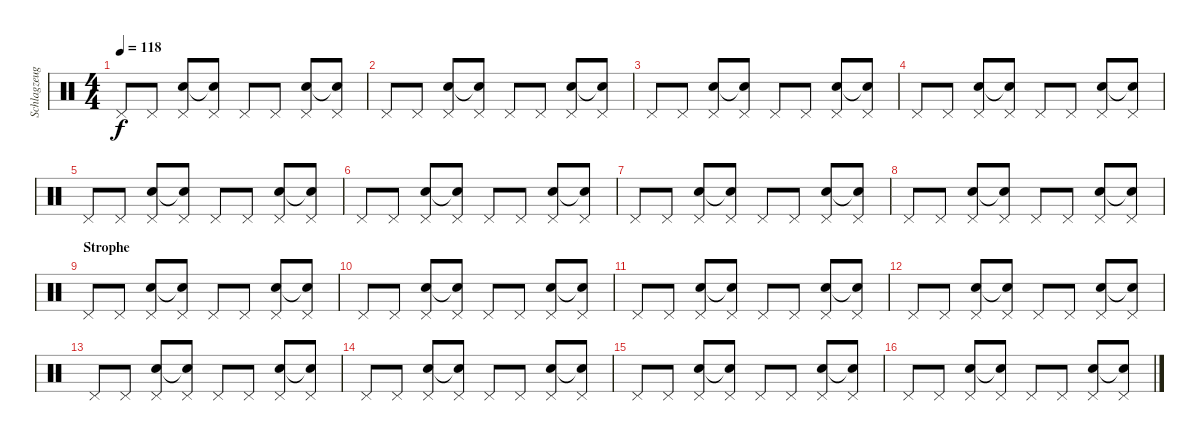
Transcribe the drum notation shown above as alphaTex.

\track ("Schlagzeug" "Schlagzeug") {instrument percussion}
\staff {score}
\articulation defaults
\ts (4 4)
\tempo 118
\clef neutral
\ks c "Pedal Hi-Hat (hit)".8{dy f} "Pedal Hi-Hat (hit)".8
("Pedal Hi-Hat (hit)" "Snare (hit) 2").8 ("Pedal Hi-Hat (hit)" "Snare (hit) 2"{t}).8 "Pedal Hi-Hat (hit)".8 "Pedal Hi-Hat (hit)".8 ("Pedal Hi-Hat (hit)" "Snare (hit) 2").8 ("Pedal Hi-Hat (hit)" "Snare (hit)"{t}).8 |
"Pedal Hi-Hat (hit)".8 "Pedal Hi-Hat (hit)".8 ("Pedal Hi-Hat (hit)" "Snare (hit) 2").8 ("Pedal Hi-Hat (hit)" "Snare (hit) 2"{t}).8 "Pedal Hi-Hat (hit)".8 "Pedal Hi-Hat (hit)".8 ("Pedal Hi-Hat (hit)" "Snare (hit) 2").8 ("Pedal Hi-Hat (hit)" "Snare (hit)"{t}).8 |
"Pedal Hi-Hat (hit)".8 "Pedal Hi-Hat (hit)".8 ("Pedal Hi-Hat (hit)" "Snare (hit) 2").8 ("Pedal Hi-Hat (hit)" "Snare (hit) 2"{t}).8 "Pedal Hi-Hat (hit)".8 "Pedal Hi-Hat (hit)".8 ("Pedal Hi-Hat (hit)" "Snare (hit) 2").8 ("Pedal Hi-Hat (hit)" "Snare (hit)"{t}).8 |
"Pedal Hi-Hat (hit)".8 "Pedal Hi-Hat (hit)".8 ("Pedal Hi-Hat (hit)" "Snare (hit) 2").8 ("Pedal Hi-Hat (hit)" "Snare (hit) 2"{t}).8 "Pedal Hi-Hat (hit)".8 "Pedal Hi-Hat (hit)".8 ("Pedal Hi-Hat (hit)" "Snare (hit) 2").8 ("Pedal Hi-Hat (hit)" "Snare (hit)"{t}).8 |
"Pedal Hi-Hat (hit)".8 "Pedal Hi-Hat (hit)".8 ("Pedal Hi-Hat (hit)" "Snare (hit) 2").8 ("Pedal Hi-Hat (hit)" "Snare (hit) 2"{t}).8 "Pedal Hi-Hat (hit)".8 "Pedal Hi-Hat (hit)".8 ("Pedal Hi-Hat (hit)" "Snare (hit) 2").8 ("Pedal Hi-Hat (hit)" "Snare (hit)"{t}).8 |
"Pedal Hi-Hat (hit)".8 "Pedal Hi-Hat (hit)".8 ("Pedal Hi-Hat (hit)" "Snare (hit) 2").8 ("Pedal Hi-Hat (hit)" "Snare (hit) 2"{t}).8 "Pedal Hi-Hat (hit)".8 "Pedal Hi-Hat (hit)".8 ("Pedal Hi-Hat (hit)" "Snare (hit) 2").8 ("Pedal Hi-Hat (hit)" "Snare (hit)"{t}).8 |
"Pedal Hi-Hat (hit)".8 "Pedal Hi-Hat (hit)".8 ("Pedal Hi-Hat (hit)" "Snare (hit) 2").8 ("Pedal Hi-Hat (hit)" "Snare (hit) 2"{t}).8 "Pedal Hi-Hat (hit)".8 "Pedal Hi-Hat (hit)".8 ("Pedal Hi-Hat (hit)" "Snare (hit) 2").8 ("Pedal Hi-Hat (hit)" "Snare (hit)"{t}).8 |
"Pedal Hi-Hat (hit)".8 "Pedal Hi-Hat (hit)".8 ("Pedal Hi-Hat (hit)" "Snare (hit) 2").8 ("Pedal Hi-Hat (hit)" "Snare (hit) 2"{t}).8 "Pedal Hi-Hat (hit)".8 "Pedal Hi-Hat (hit)".8 ("Pedal Hi-Hat (hit)" "Snare (hit) 2").8 ("Pedal Hi-Hat (hit)" "Snare (hit)"{t}).8 |
\section ("" "Strophe")
"Pedal Hi-Hat (hit)".8 "Pedal Hi-Hat (hit)".8 ("Pedal Hi-Hat (hit)" "Snare (hit) 2").8 ("Pedal Hi-Hat (hit)" "Snare (hit) 2"{t}).8 "Pedal Hi-Hat (hit)".8 "Pedal Hi-Hat (hit)".8 ("Pedal Hi-Hat (hit)" "Snare (hit) 2").8 ("Pedal Hi-Hat (hit)" "Snare (hit)"{t}).8 |
"Pedal Hi-Hat (hit)".8 "Pedal Hi-Hat (hit)".8 ("Pedal Hi-Hat (hit)" "Snare (hit) 2").8 ("Pedal Hi-Hat (hit)" "Snare (hit) 2"{t}).8 "Pedal Hi-Hat (hit)".8 "Pedal Hi-Hat (hit)".8 ("Pedal Hi-Hat (hit)" "Snare (hit) 2").8 ("Pedal Hi-Hat (hit)" "Snare (hit)"{t}).8 |
"Pedal Hi-Hat (hit)".8 "Pedal Hi-Hat (hit)".8 ("Pedal Hi-Hat (hit)" "Snare (hit) 2").8 ("Pedal Hi-Hat (hit)" "Snare (hit) 2"{t}).8 "Pedal Hi-Hat (hit)".8 "Pedal Hi-Hat (hit)".8 ("Pedal Hi-Hat (hit)" "Snare (hit) 2").8 ("Pedal Hi-Hat (hit)" "Snare (hit)"{t}).8 |
"Pedal Hi-Hat (hit)".8 "Pedal Hi-Hat (hit)".8 ("Pedal Hi-Hat (hit)" "Snare (hit) 2").8 ("Pedal Hi-Hat (hit)" "Snare (hit) 2"{t}).8 "Pedal Hi-Hat (hit)".8 "Pedal Hi-Hat (hit)".8 ("Pedal Hi-Hat (hit)" "Snare (hit) 2").8 ("Pedal Hi-Hat (hit)" "Snare (hit)"{t}).8 |
"Pedal Hi-Hat (hit)".8 "Pedal Hi-Hat (hit)".8 ("Pedal Hi-Hat (hit)" "Snare (hit) 2").8 ("Pedal Hi-Hat (hit)" "Snare (hit) 2"{t}).8 "Pedal Hi-Hat (hit)".8 "Pedal Hi-Hat (hit)".8 ("Pedal Hi-Hat (hit)" "Snare (hit) 2").8 ("Pedal Hi-Hat (hit)" "Snare (hit)"{t}).8 |
"Pedal Hi-Hat (hit)".8 "Pedal Hi-Hat (hit)".8 ("Pedal Hi-Hat (hit)" "Snare (hit) 2").8 ("Pedal Hi-Hat (hit)" "Snare (hit) 2"{t}).8 "Pedal Hi-Hat (hit)".8 "Pedal Hi-Hat (hit)".8 ("Pedal Hi-Hat (hit)" "Snare (hit) 2").8 ("Pedal Hi-Hat (hit)" "Snare (hit)"{t}).8 |
"Pedal Hi-Hat (hit)".8 "Pedal Hi-Hat (hit)".8 ("Pedal Hi-Hat (hit)" "Snare (hit) 2").8 ("Pedal Hi-Hat (hit)" "Snare (hit) 2"{t}).8 "Pedal Hi-Hat (hit)".8 "Pedal Hi-Hat (hit)".8 ("Pedal Hi-Hat (hit)" "Snare (hit) 2").8 ("Pedal Hi-Hat (hit)" "Snare (hit)"{t}).8 |
"Pedal Hi-Hat (hit)".8 "Pedal Hi-Hat (hit)".8 ("Pedal Hi-Hat (hit)" "Snare (hit) 2").8 ("Pedal Hi-Hat (hit)" "Snare (hit) 2"{t}).8 "Pedal Hi-Hat (hit)".8 "Pedal Hi-Hat (hit)".8 ("Pedal Hi-Hat (hit)" "Snare (hit) 2").8 ("Pedal Hi-Hat (hit)" "Snare (hit)"{t}).8
